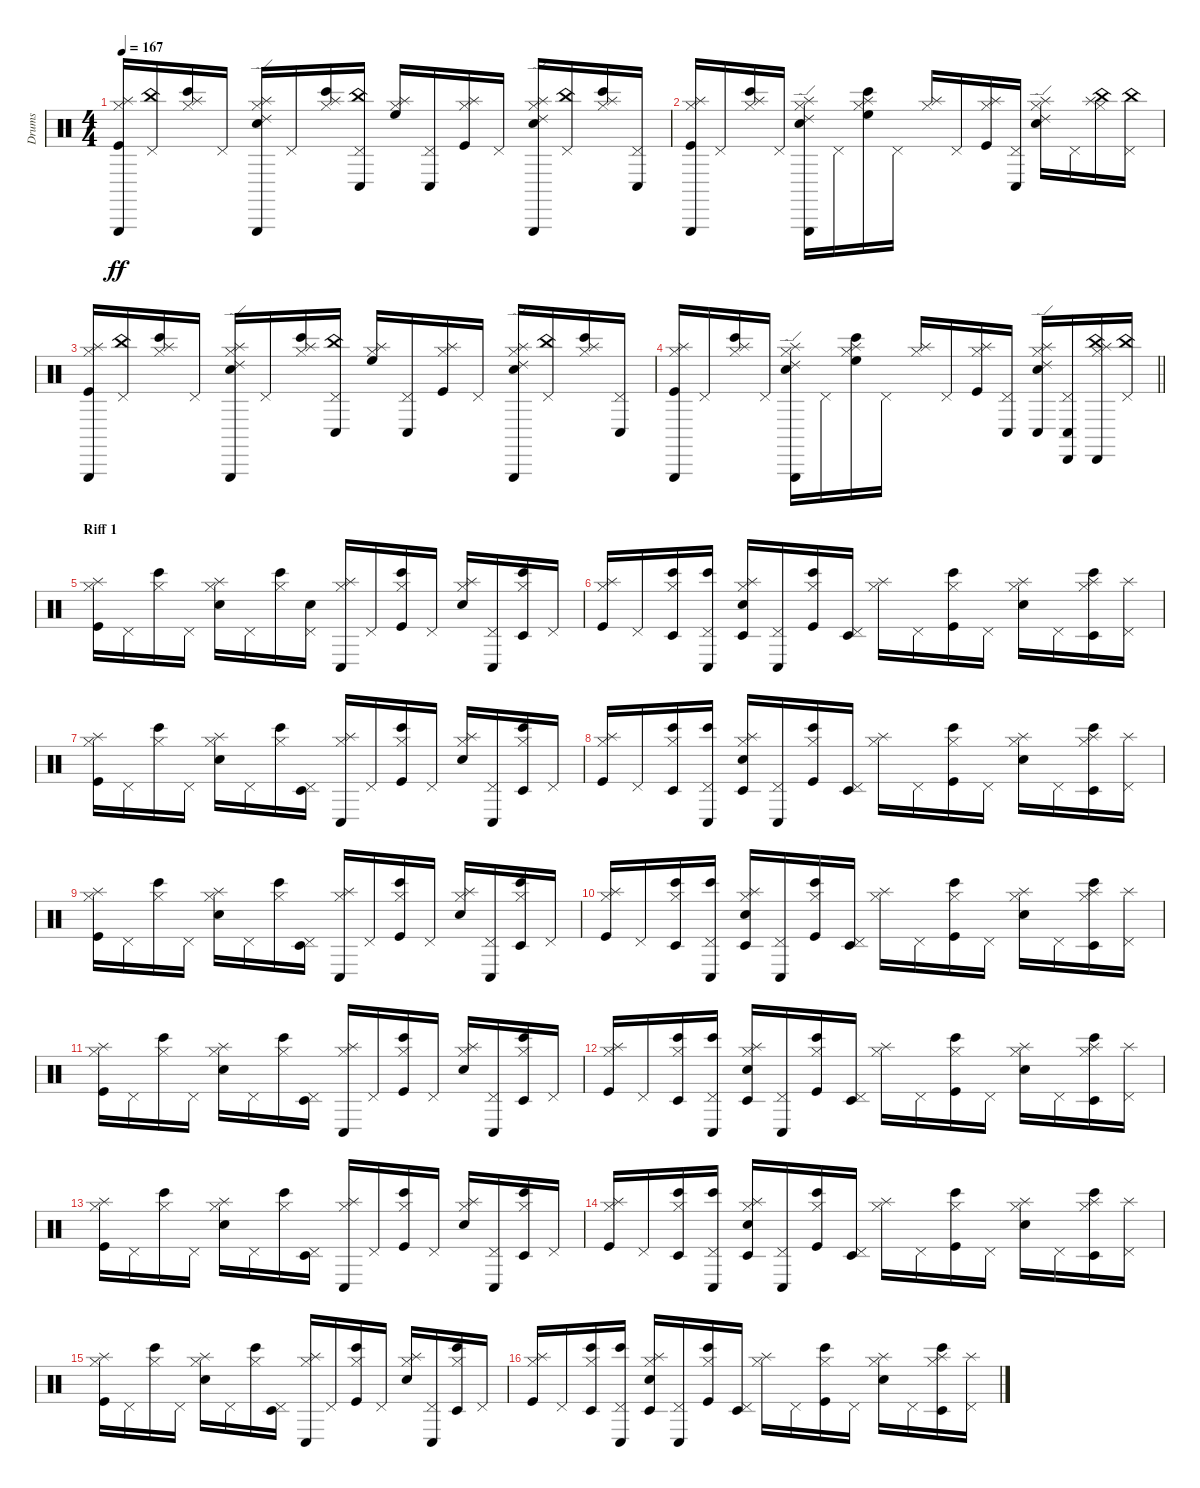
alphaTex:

\track ("Drums" "Drums") {instrument percussion}
\staff {score}
\articulation defaults
\ts (4 4)
\tempo 167
\clef neutral
\ks c
("Kick (hit)" "Hi-Hat (closed)" "Splash (hit)" "Triangle (hit)").16{dy ff} ("Pedal Hi-Hat (hit)" "China (hit)").16 ("Hi-Hat (closed)" "Splash (hit)" "Bongo High (hit)").16 "Pedal Hi-Hat (hit)".16 ("Electric Snare (hit)" "Hi-Hat (closed)" "Splash (hit)" "Ride (edge) 2" "Triangle (hit)").16 "Pedal Hi-Hat (hit)".16 ("Hi-Hat (closed)" "Splash (hit)" "Bongo High (hit)").16 ("Pedal Hi-Hat (hit)" "China (hit)" "Conga low (hit)").16 ("Hi-Hat (closed)" "High Floor Tom (hit)" "Splash (hit)").16 ("Pedal Hi-Hat (hit)" "Conga low (hit)").16 ("Kick (hit)" "Hi-Hat (closed)" "Splash (hit)").16 "Pedal Hi-Hat (hit)".16 ("Electric Snare (hit)" "Hi-Hat (closed)" "Splash (hit)" "Ride (edge) 2" "Triangle (hit)").16 ("Pedal Hi-Hat (hit)" "China (hit)").16 ("Hi-Hat (closed)" "Splash (hit)" "Bongo High (hit)").16 ("Pedal Hi-Hat (hit)" "Conga low (hit)").16 |
("Kick (hit)" "Hi-Hat (closed)" "Splash (hit)" "Triangle (hit)").16 "Pedal Hi-Hat (hit)".16 ("Hi-Hat (closed)" "Splash (hit)" "Bongo High (hit)").16 "Pedal Hi-Hat (hit)".16 ("Electric Snare (hit)" "Hi-Hat (closed)" "Splash (hit)" "Ride (edge) 2" "Triangle (hit)").16 "Pedal Hi-Hat (hit)".16 ("Hi-Hat (closed)" "High Floor Tom (hit)" "Splash (hit)" "Bongo High (hit)").16 "Pedal Hi-Hat (hit)".16 ("Hi-Hat (closed)" "Splash (hit)").16 "Pedal Hi-Hat (hit)".16 ("Kick (hit)" "Hi-Hat (closed)" "Splash (hit)").16 ("Pedal Hi-Hat (hit)" "Conga low (hit)").16 ("Electric Snare (hit)" "Hi-Hat (closed)" "Splash (hit)" "Ride (edge) 2").16 "Pedal Hi-Hat (hit)".16 ("Hi-Hat (closed)" "China (hit)" "Splash (hit)").16 ("Pedal Hi-Hat (hit)" "China (hit)").16 |
("Kick (hit)" "Hi-Hat (closed)" "Splash (hit)" "Triangle (hit)").16 ("Pedal Hi-Hat (hit)" "China (hit)").16 ("Hi-Hat (closed)" "Splash (hit)" "Bongo High (hit)").16 "Pedal Hi-Hat (hit)".16 ("Electric Snare (hit)" "Hi-Hat (closed)" "Splash (hit)" "Ride (edge) 2" "Triangle (hit)").16 "Pedal Hi-Hat (hit)".16 ("Hi-Hat (closed)" "Splash (hit)" "Bongo High (hit)").16 ("Pedal Hi-Hat (hit)" "China (hit)" "Conga low (hit)").16 ("Hi-Hat (closed)" "High Floor Tom (hit)" "Splash (hit)").16 ("Pedal Hi-Hat (hit)" "Conga low (hit)").16 ("Kick (hit)" "Hi-Hat (closed)" "Splash (hit)").16 "Pedal Hi-Hat (hit)".16 ("Electric Snare (hit)" "Hi-Hat (closed)" "Splash (hit)" "Ride (edge) 2" "Triangle (hit)").16 ("Pedal Hi-Hat (hit)" "China (hit)").16 ("Hi-Hat (closed)" "Splash (hit)" "Bongo High (hit)").16 ("Pedal Hi-Hat (hit)" "Conga low (hit)").16 |
\barLineRight lightlight
("Kick (hit)" "Hi-Hat (closed)" "Splash (hit)" "Triangle (hit)").16 "Pedal Hi-Hat (hit)".16 ("Hi-Hat (closed)" "Splash (hit)" "Bongo High (hit)").16 "Pedal Hi-Hat (hit)".16 ("Electric Snare (hit)" "Hi-Hat (closed)" "Splash (hit)" "Ride (edge) 2" "Triangle (hit)").16 "Pedal Hi-Hat (hit)".16 ("Hi-Hat (closed)" "High Floor Tom (hit)" "Splash (hit)" "Bongo High (hit)").16 "Pedal Hi-Hat (hit)".16 ("Hi-Hat (closed)" "Splash (hit)").16 "Pedal Hi-Hat (hit)".16 ("Kick (hit)" "Hi-Hat (closed)" "Splash (hit)").16 ("Pedal Hi-Hat (hit)" "Conga low (hit)").16 ("Electric Snare (hit)" "Hi-Hat (closed)" "Splash (hit)" "Ride (edge) 2" "Conga low (hit)").16 ("Pedal Hi-Hat (hit)" "Conga low (hit)" "Cabasa (hit)").16 ("Hi-Hat (closed)" "China (hit)" "Splash (hit)" "Cabasa (hit)").16 ("Pedal Hi-Hat (hit)" "China (hit)").16 |
\section ("" "Riff 1")
("Kick (hit)" "Hi-Hat (closed)" "Splash (hit)").16 "Pedal Hi-Hat (hit)".16 ("Hi-Hat (closed)" "Bongo High (hit)").16 "Pedal Hi-Hat (hit)".16 ("Electric Snare (hit)" "Hi-Hat (closed)" "Splash (hit)").16 "Pedal Hi-Hat (hit)".16 ("Hi-Hat (closed)" "Bongo High (hit)").16 ("Electric Snare (hit)" "Pedal Hi-Hat (hit)").16 ("Hi-Hat (closed)" "Splash (hit)" "Conga low (hit)").16 "Pedal Hi-Hat (hit)".16 ("Kick (hit)" "Hi-Hat (closed)" "Bongo High (hit)").16 "Pedal Hi-Hat (hit)".16 ("Electric Snare (hit)" "Hi-Hat (closed)" "Splash (hit)").16 ("Pedal Hi-Hat (hit)" "Conga low (hit)").16 ("Hi-Hat (closed)" "Bongo High (hit)" "Timbale low (hit)").16 "Pedal Hi-Hat (hit)".16 |
("Kick (hit)" "Hi-Hat (closed)" "Splash (hit)").16 "Pedal Hi-Hat (hit)".16 ("Hi-Hat (closed)" "Bongo High (hit)" "Timbale low (hit)").16 ("Pedal Hi-Hat (hit)" "Bongo High (hit)" "Conga low (hit)").16 ("Electric Snare (hit)" "Hi-Hat (closed)" "Splash (hit)" "Timbale low (hit)").16 ("Pedal Hi-Hat (hit)" "Conga low (hit)").16 ("Kick (hit)" "Hi-Hat (closed)" "Bongo High (hit)").16 ("Pedal Hi-Hat (hit)" "Timbale low (hit)").16 ("Hi-Hat (closed)" "Splash (hit)").16 "Pedal Hi-Hat (hit)".16 ("Kick (hit)" "Hi-Hat (closed)" "Bongo High (hit)").16 "Pedal Hi-Hat (hit)".16 ("Electric Snare (hit)" "Hi-Hat (closed)" "Splash (hit)").16 "Pedal Hi-Hat (hit)".16 ("Hi-Hat (closed)" "Splash (hit)" "Bongo High (hit)" "Timbale low (hit)").16 ("Pedal Hi-Hat (hit)" "Splash (hit)").16 |
("Kick (hit)" "Hi-Hat (closed)" "Splash (hit)").16 "Pedal Hi-Hat (hit)".16 ("Hi-Hat (closed)" "Bongo High (hit)").16 "Pedal Hi-Hat (hit)".16 ("Electric Snare (hit)" "Hi-Hat (closed)" "Splash (hit)").16 "Pedal Hi-Hat (hit)".16 ("Hi-Hat (closed)" "Bongo High (hit)").16 ("Pedal Hi-Hat (hit)" "Timbale low (hit)").16 ("Hi-Hat (closed)" "Splash (hit)" "Conga low (hit)").16 "Pedal Hi-Hat (hit)".16 ("Kick (hit)" "Hi-Hat (closed)" "Bongo High (hit)").16 "Pedal Hi-Hat (hit)".16 ("Electric Snare (hit)" "Hi-Hat (closed)" "Splash (hit)").16 ("Pedal Hi-Hat (hit)" "Conga low (hit)").16 ("Hi-Hat (closed)" "Bongo High (hit)" "Timbale low (hit)").16 "Pedal Hi-Hat (hit)".16 |
("Kick (hit)" "Hi-Hat (closed)" "Splash (hit)").16 "Pedal Hi-Hat (hit)".16 ("Hi-Hat (closed)" "Bongo High (hit)" "Timbale low (hit)").16 ("Pedal Hi-Hat (hit)" "Bongo High (hit)" "Conga low (hit)").16 ("Electric Snare (hit)" "Hi-Hat (closed)" "Splash (hit)" "Timbale low (hit)").16 ("Pedal Hi-Hat (hit)" "Conga low (hit)").16 ("Kick (hit)" "Hi-Hat (closed)" "Bongo High (hit)").16 ("Pedal Hi-Hat (hit)" "Timbale low (hit)").16 ("Hi-Hat (closed)" "Splash (hit)").16 "Pedal Hi-Hat (hit)".16 ("Kick (hit)" "Hi-Hat (closed)" "Bongo High (hit)").16 "Pedal Hi-Hat (hit)".16 ("Electric Snare (hit)" "Hi-Hat (closed)" "Splash (hit)").16 "Pedal Hi-Hat (hit)".16 ("Hi-Hat (closed)" "Splash (hit)" "Bongo High (hit)" "Timbale low (hit)").16 ("Pedal Hi-Hat (hit)" "Splash (hit)").16 |
("Kick (hit)" "Hi-Hat (closed)" "Splash (hit)").16 "Pedal Hi-Hat (hit)".16 ("Hi-Hat (closed)" "Bongo High (hit)").16 "Pedal Hi-Hat (hit)".16 ("Electric Snare (hit)" "Hi-Hat (closed)" "Splash (hit)").16 "Pedal Hi-Hat (hit)".16 ("Hi-Hat (closed)" "Bongo High (hit)").16 ("Pedal Hi-Hat (hit)" "Timbale low (hit)").16 ("Hi-Hat (closed)" "Splash (hit)" "Conga low (hit)").16 "Pedal Hi-Hat (hit)".16 ("Kick (hit)" "Hi-Hat (closed)" "Bongo High (hit)").16 "Pedal Hi-Hat (hit)".16 ("Electric Snare (hit)" "Hi-Hat (closed)" "Splash (hit)").16 ("Pedal Hi-Hat (hit)" "Conga low (hit)").16 ("Hi-Hat (closed)" "Bongo High (hit)" "Timbale low (hit)").16 "Pedal Hi-Hat (hit)".16 |
("Kick (hit)" "Hi-Hat (closed)" "Splash (hit)").16 "Pedal Hi-Hat (hit)".16 ("Hi-Hat (closed)" "Bongo High (hit)" "Timbale low (hit)").16 ("Pedal Hi-Hat (hit)" "Bongo High (hit)" "Conga low (hit)").16 ("Electric Snare (hit)" "Hi-Hat (closed)" "Splash (hit)" "Timbale low (hit)").16 ("Pedal Hi-Hat (hit)" "Conga low (hit)").16 ("Kick (hit)" "Hi-Hat (closed)" "Bongo High (hit)").16 ("Pedal Hi-Hat (hit)" "Timbale low (hit)").16 ("Hi-Hat (closed)" "Splash (hit)").16 "Pedal Hi-Hat (hit)".16 ("Kick (hit)" "Hi-Hat (closed)" "Bongo High (hit)").16 "Pedal Hi-Hat (hit)".16 ("Electric Snare (hit)" "Hi-Hat (closed)" "Splash (hit)").16 "Pedal Hi-Hat (hit)".16 ("Hi-Hat (closed)" "Splash (hit)" "Bongo High (hit)" "Timbale low (hit)").16 ("Pedal Hi-Hat (hit)" "Splash (hit)").16 |
("Kick (hit)" "Hi-Hat (closed)" "Splash (hit)").16 "Pedal Hi-Hat (hit)".16 ("Hi-Hat (closed)" "Bongo High (hit)").16 "Pedal Hi-Hat (hit)".16 ("Electric Snare (hit)" "Hi-Hat (closed)" "Splash (hit)").16 "Pedal Hi-Hat (hit)".16 ("Hi-Hat (closed)" "Bongo High (hit)").16 ("Pedal Hi-Hat (hit)" "Timbale low (hit)").16 ("Hi-Hat (closed)" "Splash (hit)" "Conga low (hit)").16 "Pedal Hi-Hat (hit)".16 ("Kick (hit)" "Hi-Hat (closed)" "Bongo High (hit)").16 "Pedal Hi-Hat (hit)".16 ("Electric Snare (hit)" "Hi-Hat (closed)" "Splash (hit)").16 ("Pedal Hi-Hat (hit)" "Conga low (hit)").16 ("Hi-Hat (closed)" "Bongo High (hit)" "Timbale low (hit)").16 "Pedal Hi-Hat (hit)".16 |
("Kick (hit)" "Hi-Hat (closed)" "Splash (hit)").16 "Pedal Hi-Hat (hit)".16 ("Hi-Hat (closed)" "Bongo High (hit)" "Timbale low (hit)").16 ("Pedal Hi-Hat (hit)" "Bongo High (hit)" "Conga low (hit)").16 ("Electric Snare (hit)" "Hi-Hat (closed)" "Splash (hit)" "Timbale low (hit)").16 ("Pedal Hi-Hat (hit)" "Conga low (hit)").16 ("Kick (hit)" "Hi-Hat (closed)" "Bongo High (hit)").16 ("Pedal Hi-Hat (hit)" "Timbale low (hit)").16 ("Hi-Hat (closed)" "Splash (hit)").16 "Pedal Hi-Hat (hit)".16 ("Kick (hit)" "Hi-Hat (closed)" "Bongo High (hit)").16 "Pedal Hi-Hat (hit)".16 ("Electric Snare (hit)" "Hi-Hat (closed)" "Splash (hit)").16 "Pedal Hi-Hat (hit)".16 ("Hi-Hat (closed)" "Splash (hit)" "Bongo High (hit)" "Timbale low (hit)").16 ("Pedal Hi-Hat (hit)" "Splash (hit)").16 |
("Kick (hit)" "Hi-Hat (closed)" "Splash (hit)").16 "Pedal Hi-Hat (hit)".16 ("Hi-Hat (closed)" "Bongo High (hit)").16 "Pedal Hi-Hat (hit)".16 ("Electric Snare (hit)" "Hi-Hat (closed)" "Splash (hit)").16 "Pedal Hi-Hat (hit)".16 ("Hi-Hat (closed)" "Bongo High (hit)").16 ("Pedal Hi-Hat (hit)" "Timbale low (hit)").16 ("Hi-Hat (closed)" "Splash (hit)" "Conga low (hit)").16 "Pedal Hi-Hat (hit)".16 ("Kick (hit)" "Hi-Hat (closed)" "Bongo High (hit)").16 "Pedal Hi-Hat (hit)".16 ("Electric Snare (hit)" "Hi-Hat (closed)" "Splash (hit)").16 ("Pedal Hi-Hat (hit)" "Conga low (hit)").16 ("Hi-Hat (closed)" "Bongo High (hit)" "Timbale low (hit)").16 "Pedal Hi-Hat (hit)".16 |
("Kick (hit)" "Hi-Hat (closed)" "Splash (hit)").16 "Pedal Hi-Hat (hit)".16 ("Hi-Hat (closed)" "Bongo High (hit)" "Timbale low (hit)").16 ("Pedal Hi-Hat (hit)" "Bongo High (hit)" "Conga low (hit)").16 ("Electric Snare (hit)" "Hi-Hat (closed)" "Splash (hit)" "Timbale low (hit)").16 ("Pedal Hi-Hat (hit)" "Conga low (hit)").16 ("Kick (hit)" "Hi-Hat (closed)" "Bongo High (hit)").16 ("Pedal Hi-Hat (hit)" "Timbale low (hit)").16 ("Hi-Hat (closed)" "Splash (hit)").16 "Pedal Hi-Hat (hit)".16 ("Kick (hit)" "Hi-Hat (closed)" "Bongo High (hit)").16 "Pedal Hi-Hat (hit)".16 ("Electric Snare (hit)" "Hi-Hat (closed)" "Splash (hit)").16 "Pedal Hi-Hat (hit)".16 ("Hi-Hat (closed)" "Splash (hit)" "Bongo High (hit)" "Timbale low (hit)").16 ("Pedal Hi-Hat (hit)" "Splash (hit)").16 |
("Kick (hit)" "Hi-Hat (closed)" "Splash (hit)").16 "Pedal Hi-Hat (hit)".16 ("Hi-Hat (closed)" "Bongo High (hit)").16 "Pedal Hi-Hat (hit)".16 ("Electric Snare (hit)" "Hi-Hat (closed)" "Splash (hit)").16 "Pedal Hi-Hat (hit)".16 ("Hi-Hat (closed)" "Bongo High (hit)").16 ("Pedal Hi-Hat (hit)" "Timbale low (hit)").16 ("Hi-Hat (closed)" "Splash (hit)" "Conga low (hit)").16 "Pedal Hi-Hat (hit)".16 ("Kick (hit)" "Hi-Hat (closed)" "Bongo High (hit)").16 "Pedal Hi-Hat (hit)".16 ("Electric Snare (hit)" "Hi-Hat (closed)" "Splash (hit)").16 ("Pedal Hi-Hat (hit)" "Conga low (hit)").16 ("Hi-Hat (closed)" "Bongo High (hit)" "Timbale low (hit)").16 "Pedal Hi-Hat (hit)".16 |
("Kick (hit)" "Hi-Hat (closed)" "Splash (hit)").16 "Pedal Hi-Hat (hit)".16 ("Hi-Hat (closed)" "Bongo High (hit)" "Timbale low (hit)").16 ("Pedal Hi-Hat (hit)" "Bongo High (hit)" "Conga low (hit)").16 ("Electric Snare (hit)" "Hi-Hat (closed)" "Splash (hit)" "Timbale low (hit)").16 ("Pedal Hi-Hat (hit)" "Conga low (hit)").16 ("Kick (hit)" "Hi-Hat (closed)" "Bongo High (hit)").16 ("Pedal Hi-Hat (hit)" "Timbale low (hit)").16 ("Hi-Hat (closed)" "Splash (hit)").16 "Pedal Hi-Hat (hit)".16 ("Kick (hit)" "Hi-Hat (closed)" "Bongo High (hit)").16 "Pedal Hi-Hat (hit)".16 ("Electric Snare (hit)" "Hi-Hat (closed)" "Splash (hit)").16 "Pedal Hi-Hat (hit)".16 ("Hi-Hat (closed)" "Splash (hit)" "Bongo High (hit)" "Timbale low (hit)").16 ("Pedal Hi-Hat (hit)" "Splash (hit)").16
